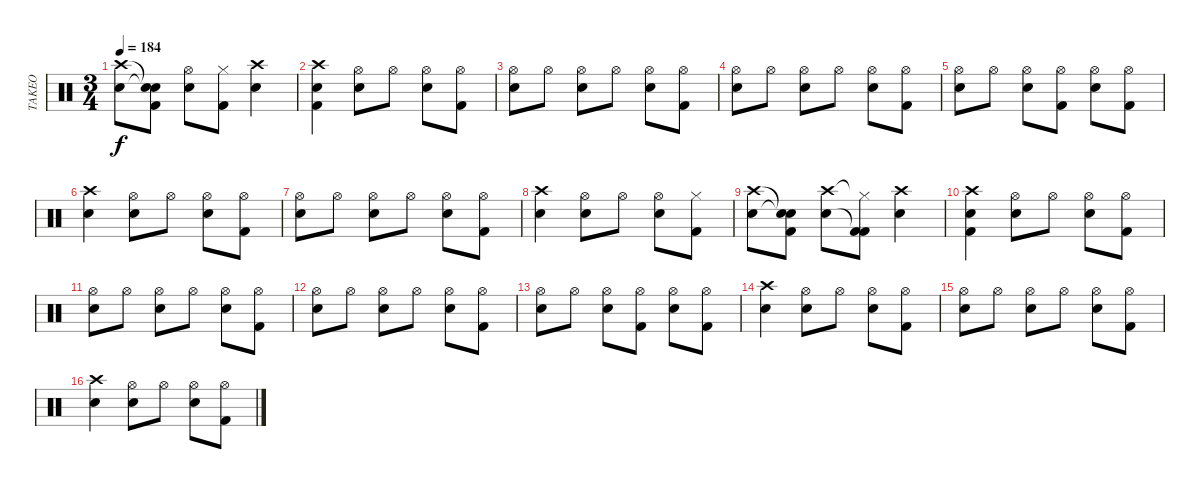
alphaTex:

\track ("TAKEO" "TAKEO") {instrument percussion}
\staff {score}
\articulation defaults
\ts (3 4)
\tempo 184
\clef neutral
\ks c
("Crash high (hit)" "Electric Snare (hit)").8{dy f} ("Snare (hit)"{t} "Snare (hit)"{t} "Kick (hit) 2").8 ("Hi-Hat (open)" "Electric Snare (hit)").8 ("Hi-Hat (closed)" "Kick (hit) 2").8 ("Crash high (hit)" "Electric Snare (hit)").4 |
("Crash high (hit)" "Electric Snare (hit)" "Kick (hit) 2").4 ("Hi-Hat (open)" "Electric Snare (hit)").8 "Hi-Hat (open)".8 ("Hi-Hat (open)" "Electric Snare (hit)").8 ("Hi-Hat (open)" "Kick (hit) 2").8 |
("Hi-Hat (open)" "Electric Snare (hit)").8 "Hi-Hat (open)".8 ("Hi-Hat (open)" "Electric Snare (hit)").8 "Hi-Hat (open)".8 ("Hi-Hat (open)" "Electric Snare (hit)").8 ("Hi-Hat (open)" "Kick (hit) 2").8 |
("Hi-Hat (open)" "Electric Snare (hit)").8 "Hi-Hat (open)".8 ("Hi-Hat (open)" "Electric Snare (hit)").8 "Hi-Hat (open)".8 ("Hi-Hat (open)" "Electric Snare (hit)").8 ("Hi-Hat (open)" "Kick (hit) 2").8 |
("Hi-Hat (open)" "Electric Snare (hit)").8 "Hi-Hat (open)".8 ("Hi-Hat (open)" "Electric Snare (hit)").8 ("Hi-Hat (open)" "Kick (hit) 2").8 ("Hi-Hat (open)" "Electric Snare (hit)").8 ("Hi-Hat (open)" "Kick (hit) 2").8 |
("Crash high (hit)" "Electric Snare (hit)").4 ("Hi-Hat (open)" "Electric Snare (hit)").8 "Hi-Hat (open)".8 ("Hi-Hat (open)" "Electric Snare (hit)").8 ("Hi-Hat (open)" "Kick (hit) 2").8 |
("Hi-Hat (open)" "Electric Snare (hit)").8 "Hi-Hat (open)".8 ("Hi-Hat (open)" "Electric Snare (hit)").8 "Hi-Hat (open)".8 ("Hi-Hat (open)" "Electric Snare (hit)").8 ("Hi-Hat (open)" "Kick (hit) 2").8 |
("Crash high (hit)" "Electric Snare (hit)").4 ("Hi-Hat (open)" "Electric Snare (hit)").8 "Hi-Hat (open)".8 ("Hi-Hat (open)" "Electric Snare (hit)").8 ("Hi-Hat (closed)" "Kick (hit) 2").8 |
("Crash high (hit)" "Electric Snare (hit)").8 ("Snare (hit)"{t} "Snare (hit)"{t} "Kick (hit) 2").8 ("Crash high (hit)" "Electric Snare (hit)").8 ("Hi-Hat (closed)"{t} "Kick (hit) 2"{t} "Kick (hit) 2").8 ("Crash high (hit)" "Electric Snare (hit)").4 |
("Crash high (hit)" "Electric Snare (hit)" "Kick (hit) 2").4 ("Hi-Hat (open)" "Electric Snare (hit)").8 "Hi-Hat (open)".8 ("Hi-Hat (open)" "Electric Snare (hit)").8 ("Hi-Hat (open)" "Kick (hit) 2").8 |
("Hi-Hat (open)" "Electric Snare (hit)").8 "Hi-Hat (open)".8 ("Hi-Hat (open)" "Electric Snare (hit)").8 "Hi-Hat (open)".8 ("Hi-Hat (open)" "Electric Snare (hit)").8 ("Hi-Hat (open)" "Kick (hit) 2").8 |
("Hi-Hat (open)" "Electric Snare (hit)").8 "Hi-Hat (open)".8 ("Hi-Hat (open)" "Electric Snare (hit)").8 "Hi-Hat (open)".8 ("Hi-Hat (open)" "Electric Snare (hit)").8 ("Hi-Hat (open)" "Kick (hit) 2").8 |
("Hi-Hat (open)" "Electric Snare (hit)").8 "Hi-Hat (open)".8 ("Hi-Hat (open)" "Electric Snare (hit)").8 ("Hi-Hat (open)" "Kick (hit) 2").8 ("Hi-Hat (open)" "Electric Snare (hit)").8 ("Hi-Hat (open)" "Kick (hit) 2").8 |
("Crash high (hit)" "Electric Snare (hit)").4 ("Hi-Hat (open)" "Electric Snare (hit)").8 "Hi-Hat (open)".8 ("Hi-Hat (open)" "Electric Snare (hit)").8 ("Hi-Hat (open)" "Kick (hit) 2").8 |
("Hi-Hat (open)" "Electric Snare (hit)").8 "Hi-Hat (open)".8 ("Hi-Hat (open)" "Electric Snare (hit)").8 "Hi-Hat (open)".8 ("Hi-Hat (open)" "Electric Snare (hit)").8 ("Hi-Hat (open)" "Kick (hit) 2").8 |
("Crash high (hit)" "Electric Snare (hit)").4 ("Hi-Hat (open)" "Electric Snare (hit)").8 "Hi-Hat (open)".8 ("Hi-Hat (open)" "Electric Snare (hit)").8 ("Hi-Hat (open)" "Kick (hit) 2").8
